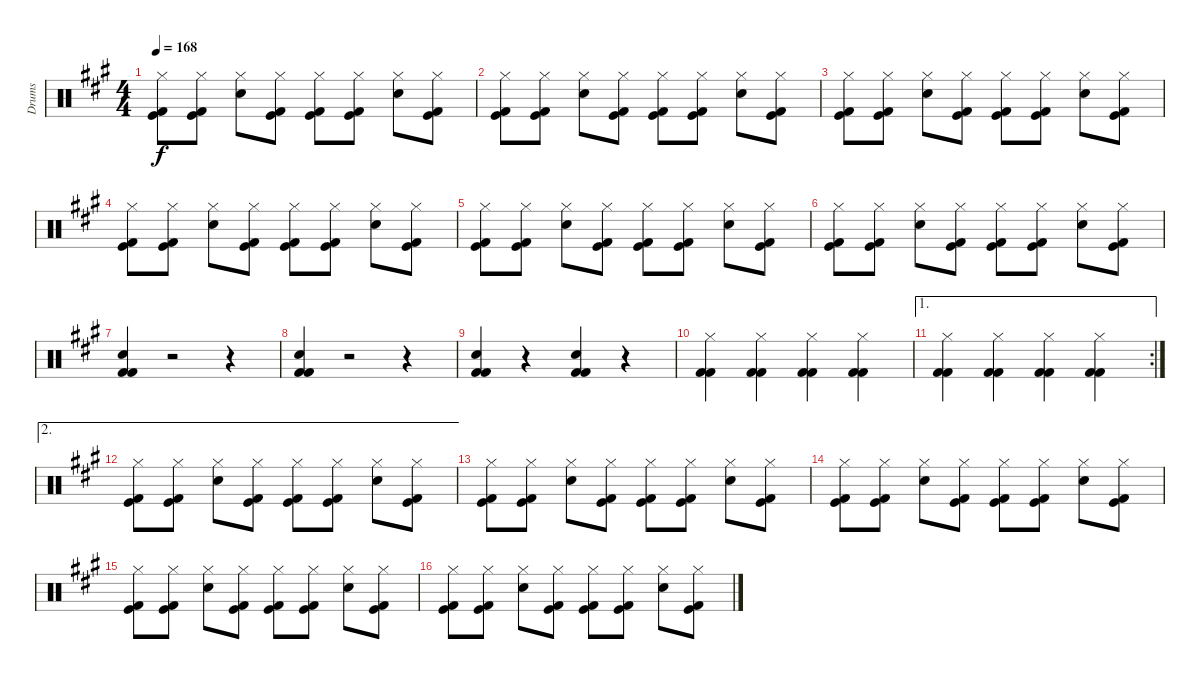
\track ("Drums" "Drums") {instrument percussion}
\staff {score}
\articulation defaults
\ts (4 4)
\tempo 168
\clef neutral
\ks a
("Hi-Hat (closed)" "Kick (hit)" "Kick (hit) 2").8{dy f} ("Hi-Hat (closed)" "Kick (hit)" "Kick (hit) 2").8 ("Hi-Hat (closed)" "Snare (hit) 2").8 ("Hi-Hat (closed)" "Kick (hit)" "Kick (hit) 2").8 ("Hi-Hat (closed)" "Kick (hit)" "Kick (hit) 2").8 ("Hi-Hat (closed)" "Kick (hit)" "Kick (hit) 2").8 ("Hi-Hat (closed)" "Snare (hit) 2").8 ("Hi-Hat (closed)" "Kick (hit)" "Kick (hit) 2").8 |
("Hi-Hat (closed)" "Kick (hit)" "Kick (hit) 2").8 ("Hi-Hat (closed)" "Kick (hit)" "Kick (hit) 2").8 ("Hi-Hat (closed)" "Snare (hit) 2").8 ("Hi-Hat (closed)" "Kick (hit)" "Kick (hit) 2").8 ("Hi-Hat (closed)" "Kick (hit)" "Kick (hit) 2").8 ("Hi-Hat (closed)" "Kick (hit)" "Kick (hit) 2").8 ("Hi-Hat (closed)" "Snare (hit) 2").8 ("Hi-Hat (closed)" "Kick (hit)" "Kick (hit) 2").8 |
("Hi-Hat (closed)" "Kick (hit)" "Kick (hit) 2").8 ("Hi-Hat (closed)" "Kick (hit)" "Kick (hit) 2").8 ("Hi-Hat (closed)" "Snare (hit) 2").8 ("Hi-Hat (closed)" "Kick (hit)" "Kick (hit) 2").8 ("Hi-Hat (closed)" "Kick (hit)" "Kick (hit) 2").8 ("Hi-Hat (closed)" "Kick (hit)" "Kick (hit) 2").8 ("Hi-Hat (closed)" "Snare (hit) 2").8 ("Hi-Hat (closed)" "Kick (hit)" "Kick (hit) 2").8 |
("Hi-Hat (closed)" "Kick (hit)" "Kick (hit) 2").8 ("Hi-Hat (closed)" "Kick (hit)" "Kick (hit) 2").8 ("Hi-Hat (closed)" "Snare (hit) 2").8 ("Hi-Hat (closed)" "Kick (hit)" "Kick (hit) 2").8 ("Hi-Hat (closed)" "Kick (hit)" "Kick (hit) 2").8 ("Hi-Hat (closed)" "Kick (hit)" "Kick (hit) 2").8 ("Hi-Hat (closed)" "Snare (hit) 2").8 ("Hi-Hat (closed)" "Kick (hit)" "Kick (hit) 2").8 |
("Hi-Hat (closed)" "Kick (hit)" "Kick (hit) 2").8 ("Hi-Hat (closed)" "Kick (hit)" "Kick (hit) 2").8 ("Hi-Hat (closed)" "Snare (hit) 2").8 ("Hi-Hat (closed)" "Kick (hit)" "Kick (hit) 2").8 ("Hi-Hat (closed)" "Kick (hit)" "Kick (hit) 2").8 ("Hi-Hat (closed)" "Kick (hit)" "Kick (hit) 2").8 ("Hi-Hat (closed)" "Snare (hit) 2").8 ("Hi-Hat (closed)" "Kick (hit)" "Kick (hit) 2").8 |
("Hi-Hat (closed)" "Kick (hit)" "Kick (hit) 2").8 ("Hi-Hat (closed)" "Kick (hit)" "Kick (hit) 2").8 ("Hi-Hat (closed)" "Snare (hit) 2").8 ("Hi-Hat (closed)" "Kick (hit)" "Kick (hit) 2").8 ("Hi-Hat (closed)" "Kick (hit)" "Kick (hit) 2").8 ("Hi-Hat (closed)" "Kick (hit)" "Kick (hit) 2").8 ("Hi-Hat (closed)" "Snare (hit) 2").8 ("Hi-Hat (closed)" "Kick (hit)" "Kick (hit) 2").8 |
("Snare (hit) 2" "Kick (hit) 2" "Kick (hit) 2").4 r.2 r.4 |
("Snare (hit) 2" "Kick (hit) 2" "Kick (hit) 2").4 r.2 r.4 |
("Snare (hit) 2" "Kick (hit) 2" "Kick (hit) 2").4 r.4 ("Snare (hit) 2" "Kick (hit) 2" "Kick (hit) 2").4 r.4 |
("Hi-Hat (closed)" "Kick (hit) 2" "Kick (hit) 2").4 ("Hi-Hat (closed)" "Kick (hit) 2" "Kick (hit) 2").4 ("Hi-Hat (closed)" "Kick (hit) 2" "Kick (hit) 2").4 ("Hi-Hat (closed)" "Kick (hit) 2" "Kick (hit) 2").4 |
\ae 1
\rc 2
("Hi-Hat (closed)" "Kick (hit) 2" "Kick (hit) 2").4 ("Hi-Hat (closed)" "Kick (hit) 2" "Kick (hit) 2").4 ("Hi-Hat (closed)" "Kick (hit) 2" "Kick (hit) 2").4 ("Hi-Hat (closed)" "Kick (hit) 2" "Kick (hit) 2").4 |
\ae 2
("Hi-Hat (closed)" "Kick (hit)" "Kick (hit) 2").8 ("Hi-Hat (closed)" "Kick (hit)" "Kick (hit) 2").8 ("Hi-Hat (closed)" "Snare (hit) 2").8 ("Hi-Hat (closed)" "Kick (hit)" "Kick (hit) 2").8 ("Hi-Hat (closed)" "Kick (hit)" "Kick (hit) 2").8 ("Hi-Hat (closed)" "Kick (hit)" "Kick (hit) 2").8 ("Hi-Hat (closed)" "Snare (hit) 2").8 ("Hi-Hat (closed)" "Kick (hit)" "Kick (hit) 2").8 |
("Hi-Hat (closed)" "Kick (hit)" "Kick (hit) 2").8 ("Hi-Hat (closed)" "Kick (hit)" "Kick (hit) 2").8 ("Hi-Hat (closed)" "Snare (hit) 2").8 ("Hi-Hat (closed)" "Kick (hit)" "Kick (hit) 2").8 ("Hi-Hat (closed)" "Kick (hit)" "Kick (hit) 2").8 ("Hi-Hat (closed)" "Kick (hit)" "Kick (hit) 2").8 ("Hi-Hat (closed)" "Snare (hit) 2").8 ("Hi-Hat (closed)" "Kick (hit)" "Kick (hit) 2").8 |
("Hi-Hat (closed)" "Kick (hit)" "Kick (hit) 2").8 ("Hi-Hat (closed)" "Kick (hit)" "Kick (hit) 2").8 ("Hi-Hat (closed)" "Snare (hit) 2").8 ("Hi-Hat (closed)" "Kick (hit)" "Kick (hit) 2").8 ("Hi-Hat (closed)" "Kick (hit)" "Kick (hit) 2").8 ("Hi-Hat (closed)" "Kick (hit)" "Kick (hit) 2").8 ("Hi-Hat (closed)" "Snare (hit) 2").8 ("Hi-Hat (closed)" "Kick (hit)" "Kick (hit) 2").8 |
("Hi-Hat (closed)" "Kick (hit)" "Kick (hit) 2").8 ("Hi-Hat (closed)" "Kick (hit)" "Kick (hit) 2").8 ("Hi-Hat (closed)" "Snare (hit) 2").8 ("Hi-Hat (closed)" "Kick (hit)" "Kick (hit) 2").8 ("Hi-Hat (closed)" "Kick (hit)" "Kick (hit) 2").8 ("Hi-Hat (closed)" "Kick (hit)" "Kick (hit) 2").8 ("Hi-Hat (closed)" "Snare (hit) 2").8 ("Hi-Hat (closed)" "Kick (hit)" "Kick (hit) 2").8 |
("Hi-Hat (closed)" "Kick (hit)" "Kick (hit) 2").8 ("Hi-Hat (closed)" "Kick (hit)" "Kick (hit) 2").8 ("Hi-Hat (closed)" "Snare (hit) 2").8 ("Hi-Hat (closed)" "Kick (hit)" "Kick (hit) 2").8 ("Hi-Hat (closed)" "Kick (hit)" "Kick (hit) 2").8 ("Hi-Hat (closed)" "Kick (hit)" "Kick (hit) 2").8 ("Hi-Hat (closed)" "Snare (hit) 2").8 ("Hi-Hat (closed)" "Kick (hit)" "Kick (hit) 2").8
